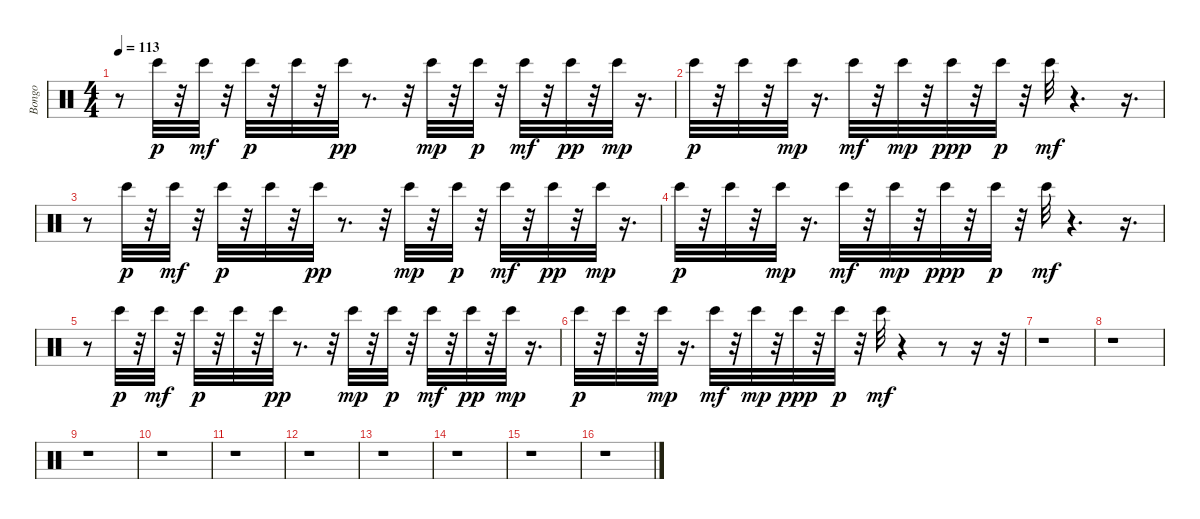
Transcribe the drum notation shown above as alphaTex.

\track ("Bongo" "Bongo") {instrument percussion}
\staff {score}
\articulation defaults
\ts (4 4)
\tempo 113
\clef neutral
\ks c
r.8{dy mf} "Bongo High (hit)".32{dy p} r.32 "Bongo High (hit)".32{dy mf} r.32 "Bongo High (hit)".32{dy p} r.32 "Bongo High (hit)".32 r.32 "Bongo High (hit)".32{dy pp} r.8{d} r.32 "Bongo High (hit)".32{dy mp} r.32 "Bongo High (hit)".32{dy p} r.32 "Bongo High (hit)".32{dy mf} r.32 "Bongo High (hit)".32{dy pp} r.32 "Bongo High (hit)".32{dy mp} r.16{d} |
"Bongo High (hit)".32{dy p} r.32 "Bongo High (hit)".32 r.32 "Bongo High (hit)".32{dy mp} r.16{d} "Bongo High (hit)".32{dy mf} r.32 "Bongo High (hit)".32{dy mp} r.32 "Bongo High (hit)".32{dy ppp} r.32 "Bongo High (hit)".32{dy p} r.32 "Bongo High (hit)".32{dy mf} r.4{d} r.16{d} |
r.8 "Bongo High (hit)".32{dy p} r.32 "Bongo High (hit)".32{dy mf} r.32 "Bongo High (hit)".32{dy p} r.32 "Bongo High (hit)".32 r.32 "Bongo High (hit)".32{dy pp} r.8{d} r.32 "Bongo High (hit)".32{dy mp} r.32 "Bongo High (hit)".32{dy p} r.32 "Bongo High (hit)".32{dy mf} r.32 "Bongo High (hit)".32{dy pp} r.32 "Bongo High (hit)".32{dy mp} r.16{d} |
"Bongo High (hit)".32{dy p} r.32 "Bongo High (hit)".32 r.32 "Bongo High (hit)".32{dy mp} r.16{d} "Bongo High (hit)".32{dy mf} r.32 "Bongo High (hit)".32{dy mp} r.32 "Bongo High (hit)".32{dy ppp} r.32 "Bongo High (hit)".32{dy p} r.32 "Bongo High (hit)".32{dy mf} r.4{d} r.16{d} |
r.8 "Bongo High (hit)".32{dy p} r.32 "Bongo High (hit)".32{dy mf} r.32 "Bongo High (hit)".32{dy p} r.32 "Bongo High (hit)".32 r.32 "Bongo High (hit)".32{dy pp} r.8{d} r.32 "Bongo High (hit)".32{dy mp} r.32 "Bongo High (hit)".32{dy p} r.32 "Bongo High (hit)".32{dy mf} r.32 "Bongo High (hit)".32{dy pp} r.32 "Bongo High (hit)".32{dy mp} r.16{d} |
"Bongo High (hit)".32{dy p} r.32 "Bongo High (hit)".32 r.32 "Bongo High (hit)".32{dy mp} r.16{d} "Bongo High (hit)".32{dy mf} r.32 "Bongo High (hit)".32{dy mp} r.32 "Bongo High (hit)".32{dy ppp} r.32 "Bongo High (hit)".32{dy p} r.32 "Bongo High (hit)".32{dy mf} r.4 r.8 r.16 r.32 |
r.1 |
r.1 |
r.1 |
r.1 |
r.1 |
r.1 |
r.1 |
r.1 |
r.1 |
r.1
